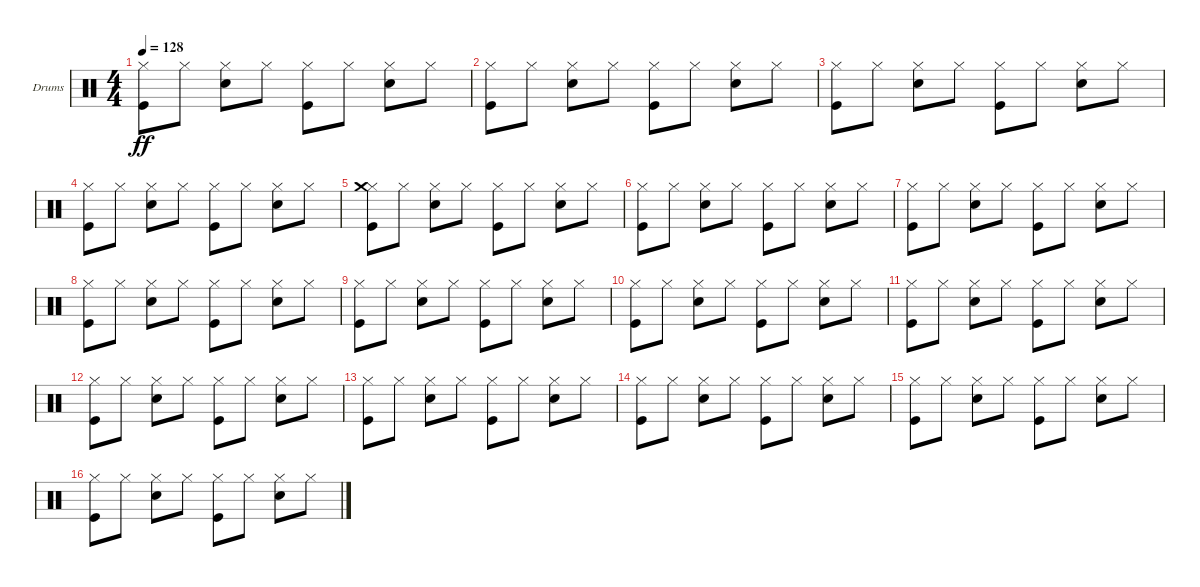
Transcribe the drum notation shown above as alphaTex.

\defaultSystemsLayout 4
\bracketExtendMode groupsimilarinstruments
\firstSystemTrackNameOrientation horizontal
\otherSystemsTrackNameOrientation horizontal
\track ("Drums" "Drums") {instrument percussion}
\staff {score}
\articulation defaults
\ts (4 4)
\tempo 128
\clef neutral
\ks c
("Kick (hit)" "Hi-Hat (closed)").8{dy ff} "Hi-Hat (closed)".8 ("Snare (hit) 2" "Hi-Hat (closed)").8 "Hi-Hat (closed)".8 ("Hi-Hat (closed)" "Kick (hit)").8 "Hi-Hat (closed)".8 ("Snare (hit) 2" "Hi-Hat (closed)").8 "Hi-Hat (closed)".8 |
("Kick (hit)" "Hi-Hat (closed)").8 "Hi-Hat (closed)".8 ("Snare (hit) 2" "Hi-Hat (closed)").8 "Hi-Hat (closed)".8 ("Hi-Hat (closed)" "Kick (hit)").8 "Hi-Hat (closed)".8 ("Snare (hit) 2" "Hi-Hat (closed)").8 "Hi-Hat (closed)".8 |
("Kick (hit)" "Hi-Hat (closed)").8 "Hi-Hat (closed)".8 ("Snare (hit) 2" "Hi-Hat (closed)").8 "Hi-Hat (closed)".8 ("Kick (hit)" "Hi-Hat (closed)").8 "Hi-Hat (closed)".8 ("Snare (hit) 2" "Hi-Hat (closed)").8 "Hi-Hat (closed)".8 |
("Kick (hit)" "Hi-Hat (closed)").8 "Hi-Hat (closed)".8 ("Snare (hit) 2" "Hi-Hat (closed)").8 "Hi-Hat (closed)".8 ("Hi-Hat (closed)" "Kick (hit)").8 "Hi-Hat (closed)".8 ("Snare (hit) 2" "Hi-Hat (closed)").8 "Hi-Hat (closed)".8 |
("Kick (hit)" "Hi-Hat (closed)" "Crash medium (hit)").8 "Hi-Hat (closed)".8 ("Snare (hit) 2" "Hi-Hat (closed)").8 "Hi-Hat (closed)".8 ("Kick (hit)" "Hi-Hat (closed)").8 "Hi-Hat (closed)".8 ("Snare (hit) 2" "Hi-Hat (closed)").8 "Hi-Hat (closed)".8 |
("Kick (hit)" "Hi-Hat (closed)").8 "Hi-Hat (closed)".8 ("Snare (hit) 2" "Hi-Hat (closed)").8 "Hi-Hat (closed)".8 ("Hi-Hat (closed)" "Kick (hit)").8 "Hi-Hat (closed)".8 ("Snare (hit) 2" "Hi-Hat (closed)").8 "Hi-Hat (closed)".8 |
("Kick (hit)" "Hi-Hat (closed)").8 "Hi-Hat (closed)".8 ("Snare (hit) 2" "Hi-Hat (closed)").8 "Hi-Hat (closed)".8 ("Kick (hit)" "Hi-Hat (closed)").8 "Hi-Hat (closed)".8 ("Snare (hit) 2" "Hi-Hat (closed)").8 "Hi-Hat (closed)".8 |
("Kick (hit)" "Hi-Hat (closed)").8 "Hi-Hat (closed)".8 ("Snare (hit) 2" "Hi-Hat (closed)").8 "Hi-Hat (closed)".8 ("Hi-Hat (closed)" "Kick (hit)").8 "Hi-Hat (closed)".8 ("Snare (hit) 2" "Hi-Hat (closed)").8 "Hi-Hat (closed)".8 |
("Kick (hit)" "Hi-Hat (closed)").8 "Hi-Hat (closed)".8 ("Snare (hit) 2" "Hi-Hat (closed)").8 "Hi-Hat (closed)".8 ("Kick (hit)" "Hi-Hat (closed)").8 "Hi-Hat (closed)".8 ("Snare (hit) 2" "Hi-Hat (closed)").8 "Hi-Hat (closed)".8 |
("Kick (hit)" "Hi-Hat (closed)").8 "Hi-Hat (closed)".8 ("Snare (hit) 2" "Hi-Hat (closed)").8 "Hi-Hat (closed)".8 ("Hi-Hat (closed)" "Kick (hit)").8 "Hi-Hat (closed)".8 ("Snare (hit) 2" "Hi-Hat (closed)").8 "Hi-Hat (closed)".8 |
("Kick (hit)" "Hi-Hat (closed)").8 "Hi-Hat (closed)".8 ("Snare (hit) 2" "Hi-Hat (closed)").8 "Hi-Hat (closed)".8 ("Kick (hit)" "Hi-Hat (closed)").8 "Hi-Hat (closed)".8 ("Snare (hit) 2" "Hi-Hat (closed)").8 "Hi-Hat (closed)".8 |
("Kick (hit)" "Hi-Hat (closed)").8 "Hi-Hat (closed)".8 ("Snare (hit) 2" "Hi-Hat (closed)").8 "Hi-Hat (closed)".8 ("Hi-Hat (closed)" "Kick (hit)").8 "Hi-Hat (closed)".8 ("Snare (hit) 2" "Hi-Hat (closed)").8 "Hi-Hat (closed)".8 |
("Kick (hit)" "Hi-Hat (closed)").8 "Hi-Hat (closed)".8 ("Snare (hit) 2" "Hi-Hat (closed)").8 "Hi-Hat (closed)".8 ("Kick (hit)" "Hi-Hat (closed)").8 "Hi-Hat (closed)".8 ("Snare (hit) 2" "Hi-Hat (closed)").8 "Hi-Hat (closed)".8 |
("Kick (hit)" "Hi-Hat (closed)").8 "Hi-Hat (closed)".8 ("Snare (hit) 2" "Hi-Hat (closed)").8 "Hi-Hat (closed)".8 ("Hi-Hat (closed)" "Kick (hit)").8 "Hi-Hat (closed)".8 ("Snare (hit) 2" "Hi-Hat (closed)").8 "Hi-Hat (closed)".8 |
("Kick (hit)" "Hi-Hat (closed)").8 "Hi-Hat (closed)".8 ("Snare (hit) 2" "Hi-Hat (closed)").8 "Hi-Hat (closed)".8 ("Kick (hit)" "Hi-Hat (closed)").8 "Hi-Hat (closed)".8 ("Snare (hit) 2" "Hi-Hat (closed)").8 "Hi-Hat (closed)".8 |
("Kick (hit)" "Hi-Hat (closed)").8 "Hi-Hat (closed)".8 ("Snare (hit) 2" "Hi-Hat (closed)").8 "Hi-Hat (closed)".8 ("Hi-Hat (closed)" "Kick (hit)").8 "Hi-Hat (closed)".8 ("Snare (hit) 2" "Hi-Hat (closed)").8 "Hi-Hat (closed)".8
